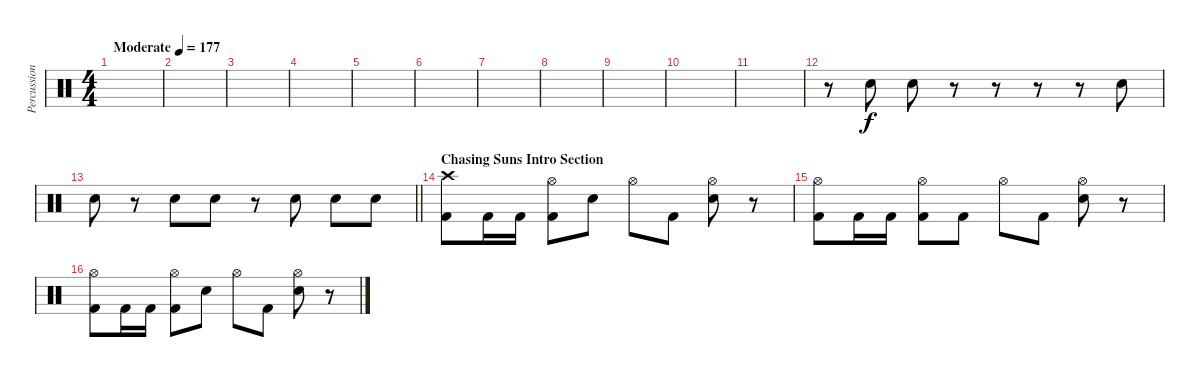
\track ("Percussion" "Percussion") {instrument percussion}
\staff {score}
\articulation defaults
\ts (4 4)
\tempo (177 "Moderate")
\clef neutral
\ks c
|
|
|
|
|
|
|
|
|
|
|
r.8 "Electric Snare (hit)".8 "Electric Snare (hit)".8 r.8 r.8 r.8 r.8 "Electric Snare (hit)".8 |
\barLineRight lightlight "Electric Snare (hit)".8
r.8 "Electric Snare (hit)".8 "Electric Snare (hit)".8 r.8 "Electric Snare (hit)".8 "Electric Snare (hit)".8 "Electric Snare (hit)".8 |
\section ("" "Chasing Suns Intro Section")
("Crash high (hit)" "Kick (hit) 2").8 "Kick (hit) 2".16 "Kick (hit) 2".16 ("Hi-Hat (open)" "Kick (hit) 2").8 "Electric Snare (hit)".8 "Hi-Hat (open)".8 "Kick (hit) 2".8 ("Hi-Hat (open)" "Electric Snare (hit)").8 r.8 |
("Hi-Hat (open)" "Kick (hit) 2").8 "Kick (hit) 2".16 "Kick (hit) 2".16 ("Hi-Hat (open)" "Kick (hit) 2").8 "Kick (hit) 2".8 "Hi-Hat (open)".8 "Kick (hit) 2".8 ("Hi-Hat (open)" "Electric Snare (hit)").8 r.8 |
("Hi-Hat (open)" "Kick (hit) 2").8 "Kick (hit) 2".16 "Kick (hit) 2".16 ("Hi-Hat (open)" "Kick (hit) 2").8 "Electric Snare (hit)".8 "Hi-Hat (open)".8 "Kick (hit) 2".8 ("Hi-Hat (open)" "Electric Snare (hit)").8 r.8
